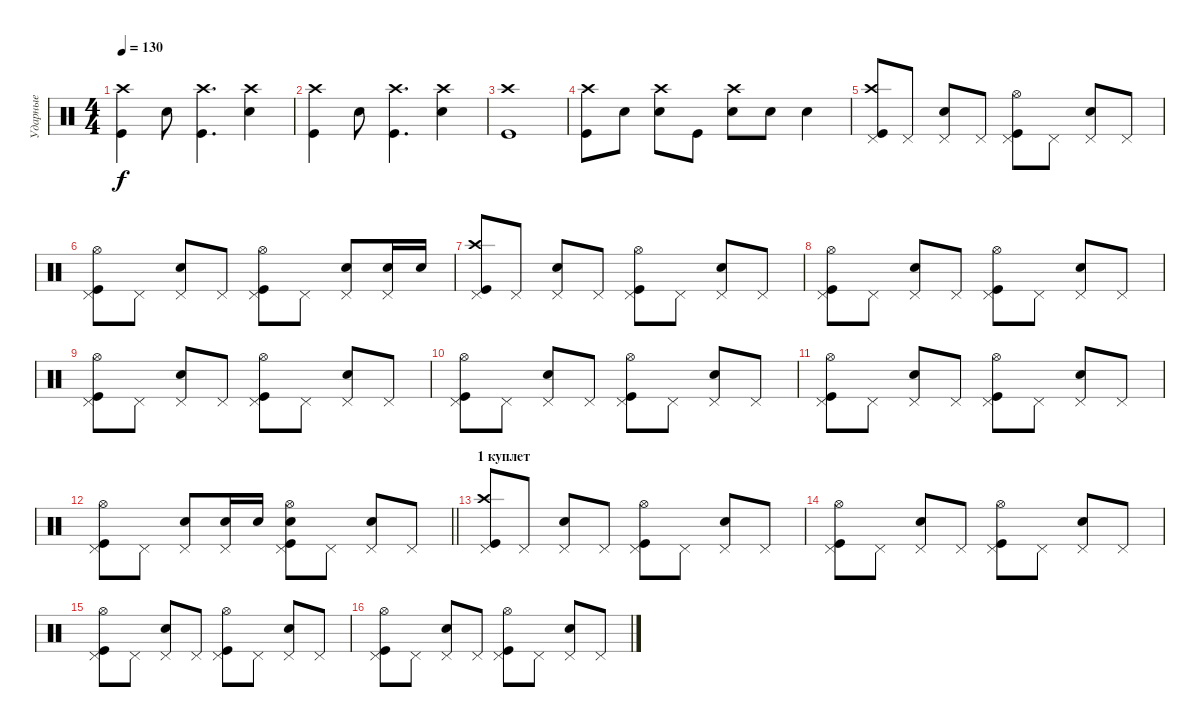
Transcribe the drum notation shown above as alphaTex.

\track ("Ударные" "Ударные") {instrument percussion}
\staff {score}
\articulation defaults
\ts (4 4)
\tempo 130
\clef neutral
\ks c
("Kick (hit)" "Crash high (hit)").4{dy f} "Snare (hit) 2".8 ("Kick (hit)" "Crash high (hit)").4{d} ("Snare (hit) 2" "Crash high (hit)").4 |
("Kick (hit)" "Crash high (hit)").4 "Snare (hit) 2".8 ("Kick (hit)" "Crash high (hit)").4{d} ("Snare (hit) 2" "Crash high (hit)").4 |
("Kick (hit)" "Crash high (hit)").1 |
("Kick (hit)" "Crash high (hit)").8 "Snare (hit) 2".8 ("Snare (hit) 2" "Crash high (hit)").8 "Kick (hit)".8 ("Snare (hit) 2" "Crash high (hit)").8 "Snare (hit) 2".8 "Snare (hit) 2".4 |
("Pedal Hi-Hat (hit)" "Crash high (hit)" "Kick (hit)").8 "Pedal Hi-Hat (hit)".8 ("Pedal Hi-Hat (hit)" "Snare (hit) 2").8 "Pedal Hi-Hat (hit)".8 ("Pedal Hi-Hat (hit)" "Hi-Hat (open)" "Kick (hit)").8 "Pedal Hi-Hat (hit)".8 ("Pedal Hi-Hat (hit)" "Snare (hit) 2").8 "Pedal Hi-Hat (hit)".8 |
("Pedal Hi-Hat (hit)" "Hi-Hat (open)" "Kick (hit)").8 "Pedal Hi-Hat (hit)".8 ("Pedal Hi-Hat (hit)" "Snare (hit) 2").8 "Pedal Hi-Hat (hit)".8 ("Pedal Hi-Hat (hit)" "Hi-Hat (open)" "Kick (hit)").8 "Pedal Hi-Hat (hit)".8 ("Pedal Hi-Hat (hit)" "Snare (hit) 2").8 ("Pedal Hi-Hat (hit)" "Snare (hit) 2").16 "Snare (hit) 2".16 |
("Pedal Hi-Hat (hit)" "Crash high (hit)" "Kick (hit)").8 "Pedal Hi-Hat (hit)".8 ("Pedal Hi-Hat (hit)" "Snare (hit) 2").8 "Pedal Hi-Hat (hit)".8 ("Pedal Hi-Hat (hit)" "Hi-Hat (open)" "Kick (hit)").8 "Pedal Hi-Hat (hit)".8 ("Pedal Hi-Hat (hit)" "Snare (hit) 2").8 "Pedal Hi-Hat (hit)".8 |
("Pedal Hi-Hat (hit)" "Hi-Hat (open)" "Kick (hit)").8 "Pedal Hi-Hat (hit)".8 ("Pedal Hi-Hat (hit)" "Snare (hit) 2").8 "Pedal Hi-Hat (hit)".8 ("Pedal Hi-Hat (hit)" "Hi-Hat (open)" "Kick (hit)").8 "Pedal Hi-Hat (hit)".8 ("Pedal Hi-Hat (hit)" "Snare (hit) 2").8 "Pedal Hi-Hat (hit)".8 |
("Pedal Hi-Hat (hit)" "Hi-Hat (open)" "Kick (hit)").8 "Pedal Hi-Hat (hit)".8 ("Pedal Hi-Hat (hit)" "Snare (hit) 2").8 "Pedal Hi-Hat (hit)".8 ("Pedal Hi-Hat (hit)" "Hi-Hat (open)" "Kick (hit)").8 "Pedal Hi-Hat (hit)".8 ("Pedal Hi-Hat (hit)" "Snare (hit) 2").8 "Pedal Hi-Hat (hit)".8 |
("Pedal Hi-Hat (hit)" "Hi-Hat (open)" "Kick (hit)").8 "Pedal Hi-Hat (hit)".8 ("Pedal Hi-Hat (hit)" "Snare (hit) 2").8 "Pedal Hi-Hat (hit)".8 ("Pedal Hi-Hat (hit)" "Hi-Hat (open)" "Kick (hit)").8 "Pedal Hi-Hat (hit)".8 ("Pedal Hi-Hat (hit)" "Snare (hit) 2").8 "Pedal Hi-Hat (hit)".8 |
("Pedal Hi-Hat (hit)" "Hi-Hat (open)" "Kick (hit)").8 "Pedal Hi-Hat (hit)".8 ("Pedal Hi-Hat (hit)" "Snare (hit) 2").8 "Pedal Hi-Hat (hit)".8 ("Pedal Hi-Hat (hit)" "Hi-Hat (open)" "Kick (hit)").8 "Pedal Hi-Hat (hit)".8 ("Pedal Hi-Hat (hit)" "Snare (hit) 2").8 "Pedal Hi-Hat (hit)".8 |
\barLineRight lightlight
("Pedal Hi-Hat (hit)" "Hi-Hat (open)" "Kick (hit)").8 "Pedal Hi-Hat (hit)".8 ("Pedal Hi-Hat (hit)" "Snare (hit) 2").8 ("Pedal Hi-Hat (hit)" "Snare (hit) 2").16 "Snare (hit) 2".16 ("Kick (hit)" "Snare (hit) 2" "Pedal Hi-Hat (hit)" "Hi-Hat (open)").8 "Pedal Hi-Hat (hit)".8 ("Snare (hit) 2" "Pedal Hi-Hat (hit)").8 "Pedal Hi-Hat (hit)".8 |
\section ("" "1 куплет")
("Pedal Hi-Hat (hit)" "Crash high (hit)" "Kick (hit)").8 "Pedal Hi-Hat (hit)".8 ("Pedal Hi-Hat (hit)" "Snare (hit) 2").8 "Pedal Hi-Hat (hit)".8 ("Pedal Hi-Hat (hit)" "Hi-Hat (open)" "Kick (hit)").8 "Pedal Hi-Hat (hit)".8 ("Pedal Hi-Hat (hit)" "Snare (hit) 2").8 "Pedal Hi-Hat (hit)".8 |
("Pedal Hi-Hat (hit)" "Hi-Hat (open)" "Kick (hit)").8 "Pedal Hi-Hat (hit)".8 ("Pedal Hi-Hat (hit)" "Snare (hit) 2").8 "Pedal Hi-Hat (hit)".8 ("Pedal Hi-Hat (hit)" "Hi-Hat (open)" "Kick (hit)").8 "Pedal Hi-Hat (hit)".8 ("Pedal Hi-Hat (hit)" "Snare (hit) 2").8 "Pedal Hi-Hat (hit)".8 |
("Pedal Hi-Hat (hit)" "Hi-Hat (open)" "Kick (hit)").8 "Pedal Hi-Hat (hit)".8 ("Pedal Hi-Hat (hit)" "Snare (hit) 2").8 "Pedal Hi-Hat (hit)".8 ("Pedal Hi-Hat (hit)" "Hi-Hat (open)" "Kick (hit)").8 "Pedal Hi-Hat (hit)".8 ("Pedal Hi-Hat (hit)" "Snare (hit) 2").8 "Pedal Hi-Hat (hit)".8 |
("Pedal Hi-Hat (hit)" "Hi-Hat (open)" "Kick (hit)").8 "Pedal Hi-Hat (hit)".8 ("Pedal Hi-Hat (hit)" "Snare (hit) 2").8 "Pedal Hi-Hat (hit)".8 ("Pedal Hi-Hat (hit)" "Hi-Hat (open)" "Kick (hit)").8 "Pedal Hi-Hat (hit)".8 ("Pedal Hi-Hat (hit)" "Snare (hit) 2").8 "Pedal Hi-Hat (hit)".8
